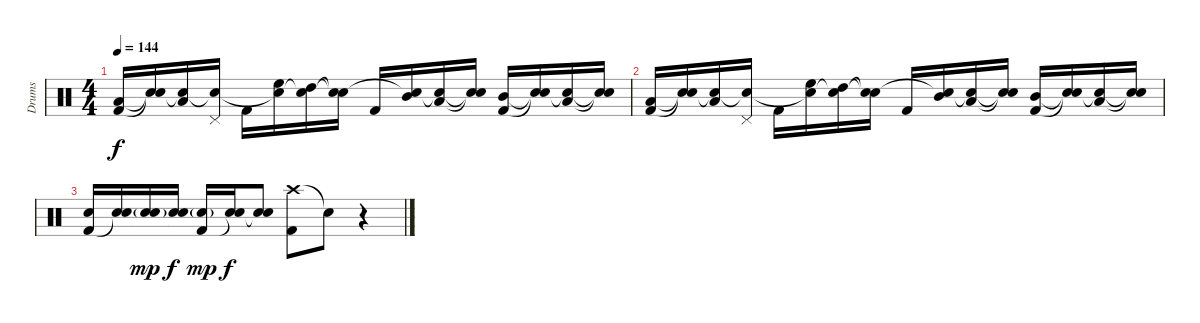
\track ("Drums" "Drums") {instrument percussion}
\staff {score}
\articulation defaults
\ts (4 4)
\tempo 144
\clef neutral
\ks c
("Low Tom (hit)" "Kick (hit) 2").16{dy f} ("Snare (hit)"{t} "Snare (hit)"{t}).16 ("Low Tom (hit)" "Snare (hit)"{t}).16 ("Pedal Hi-Hat (hit)" "Snare (hit)"{t}).16 "Kick (hit) 2".16 ("High Floor Tom (hit)" "Snare (hit)"{t}).16 ("High Tom (hit)" "Snare (hit)"{t}).16 ("Snare (hit)"{t} "Snare (hit)"{t}).16 "Kick (hit) 2".16 ("Mid Tom (hit)" "Snare (hit)"{t}).16 ("Low Tom (hit)" "Snare (hit)"{t}).16 ("Snare (hit)"{t} "Snare (hit)"{t}).16 ("Mid Tom (hit)" "Kick (hit) 2").16 ("Snare (hit)"{t} "Snare (hit)"{t}).16 ("Low Tom (hit)" "Snare (hit)"{t}).16 ("Snare (hit)"{t} "Snare (hit)"{t}).16 |
("Low Tom (hit)" "Kick (hit) 2").16 ("Snare (hit)"{t} "Snare (hit)"{t}).16 ("Low Tom (hit)" "Snare (hit)"{t}).16 ("Pedal Hi-Hat (hit)" "Snare (hit)"{t}).16 "Kick (hit) 2".16 ("High Floor Tom (hit)" "Snare (hit)"{t}).16 ("High Tom (hit)" "Snare (hit)"{t}).16 ("Snare (hit)"{t} "Snare (hit)"{t}).16 "Kick (hit) 2".16 ("Mid Tom (hit)" "Snare (hit)"{t}).16 ("Low Tom (hit)" "Snare (hit)"{t}).16 ("Snare (hit)"{t} "Snare (hit)"{t}).16 ("Mid Tom (hit)" "Kick (hit) 2").16 ("Snare (hit)"{t} "Snare (hit)"{t}).16 ("Low Tom (hit)" "Snare (hit)"{t}).16 ("Snare (hit)"{t} "Snare (hit)"{t}).16 |
("Snare (hit) 2" "Kick (hit) 2").16 ("Snare (hit) 2" "Snare (hit)"{t}).16 ("Snare (hit) 2"{g} "Snare (hit)"{t}).16{dy mp} ("Snare (hit) 2" "Snare (hit)"{t}).16{dy f} ("Snare (hit) 2"{g} "Kick (hit) 2").16{dy mp} ("Snare (hit) 2" "Snare (hit)"{t}).16{dy f} ("Snare (hit) 2" "Snare (hit)"{t}).8 ("Crash high (hit)" "Kick (hit) 2").8 "Snare (hit)"{t}.8 r.4
